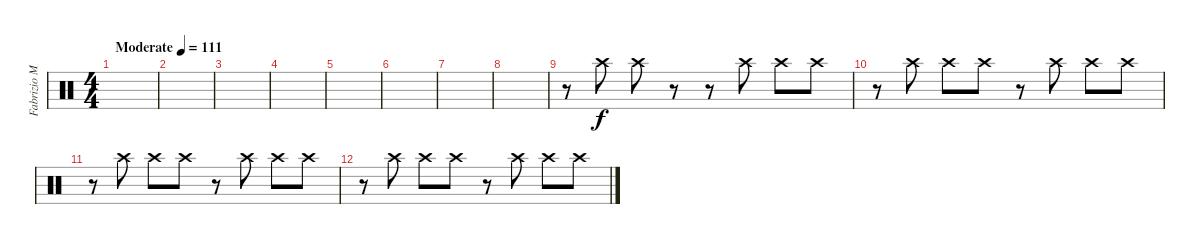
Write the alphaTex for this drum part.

\track ("Fabrizio Moretti 2" "Fabrizio M") {instrument percussion}
\staff {score}
\articulation defaults
\ts (4 4)
\tempo (111 "Moderate")
\clef neutral
\ks c
|
|
|
|
|
|
|
|
r.8 "Crash high (hit)".8 "Crash high (hit)".8 r.8 r.8 "Crash high (hit)".8 "Crash high (hit)".8 "Crash high (hit)".8 |
r.8 "Crash high (hit)".8 "Crash high (hit)".8 "Crash high (hit)".8 r.8 "Crash high (hit)".8 "Crash high (hit)".8 "Crash high (hit)".8 |
r.8 "Crash high (hit)".8 "Crash high (hit)".8 "Crash high (hit)".8 r.8 "Crash high (hit)".8 "Crash high (hit)".8 "Crash high (hit)".8 |
r.8 "Crash high (hit)".8 "Crash high (hit)".8 "Crash high (hit)".8 r.8 "Crash high (hit)".8 "Crash high (hit)".8 "Crash high (hit)".8
